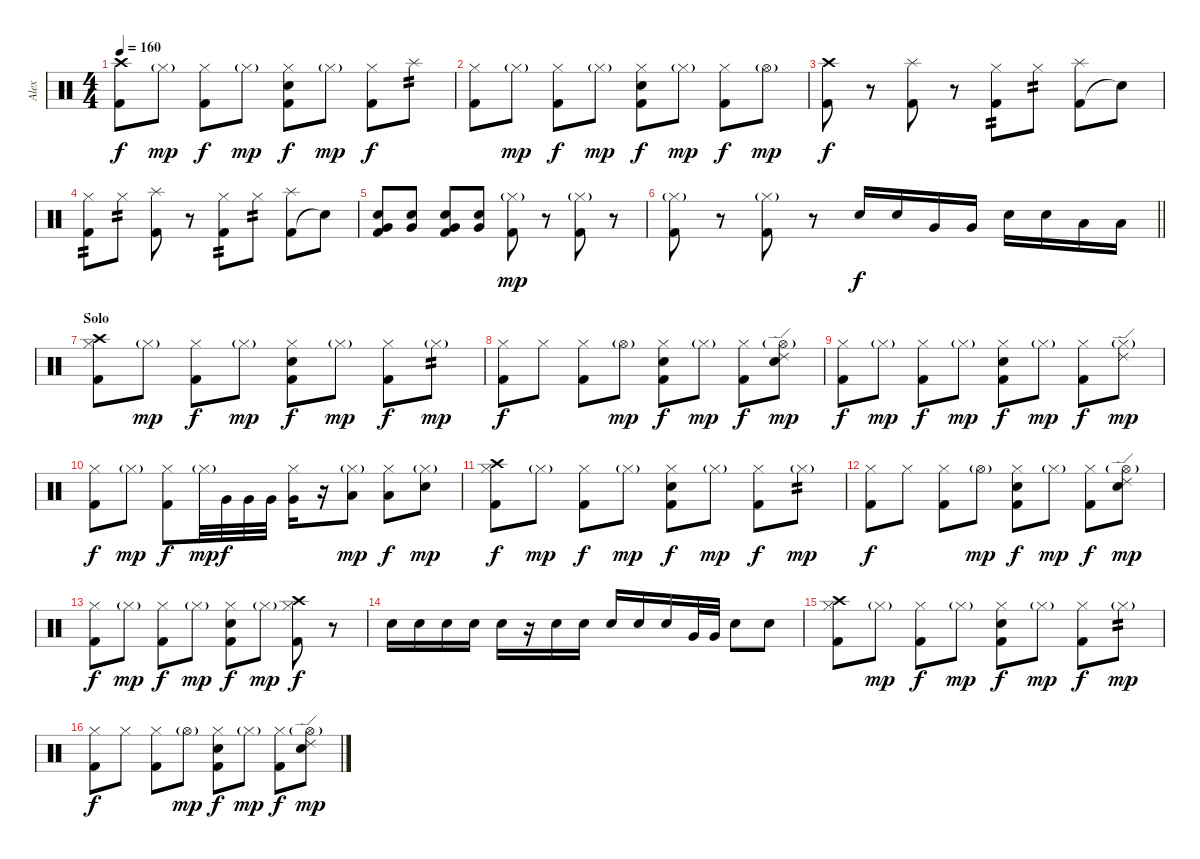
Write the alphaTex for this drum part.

\track ("Alex" "Alex") {instrument percussion}
\staff {score}
\articulation defaults
\ts (4 4)
\tempo 160
\clef neutral
\ks c
("Kick (hit) 2" "Crash high (hit)").8{dy f} "Hi-Hat (closed)"{g}.8{dy mp} ("Kick (hit) 2" "Hi-Hat (closed)").8{dy f} "Hi-Hat (closed)"{g}.8{dy mp} ("Kick (hit) 2" "Hi-Hat (closed)" "Snare (hit) 2").8{dy f} "Hi-Hat (closed)"{g}.8{dy mp} ("Kick (hit) 2" "Hi-Hat (closed)").8{dy f} "Splash (hit)".8{tp 2} |
("Kick (hit) 2" "Hi-Hat (closed)").8 "Hi-Hat (closed)"{g}.8{dy mp} ("Kick (hit) 2" "Hi-Hat (closed)").8{dy f} "Hi-Hat (closed)"{g}.8{dy mp} ("Kick (hit) 2" "Hi-Hat (closed)" "Snare (hit) 2").8{dy f} "Hi-Hat (closed)"{g}.8{dy mp} ("Kick (hit) 2" "Hi-Hat (closed)").8{dy f} "Hi-Hat (open)"{g}.8{dy mp} |
("Kick (hit) 2" "Crash high (hit)").8{dy f} r.8 ("Kick (hit) 2" "Splash (hit)").8 r.8 ("Kick (hit) 2" "Hi-Hat (closed)").8{tp 2} "Hi-Hat (closed)".8{tp 2} ("Kick (hit) 2" "Splash (hit)").8 "Snare (hit)"{t}.8 |
("Kick (hit) 2" "Hi-Hat (closed)").8{tp 2} "Hi-Hat (closed)".8{tp 2} ("Kick (hit) 2" "Splash (hit)").8 r.8 ("Kick (hit) 2" "Hi-Hat (closed)").8{tp 2} "Hi-Hat (closed)".8{tp 2} ("Kick (hit) 2" "Splash (hit)").8 "Snare (hit)"{t}.8 |
("Very Low Tom (hit)" "Kick (hit) 2" "Snare (hit) 2").8 ("Very Low Tom (hit)" "Snare (hit) 2").8 ("Very Low Tom (hit)" "Kick (hit) 2" "Snare (hit) 2").8 ("Very Low Tom (hit)" "Snare (hit) 2").8 ("Kick (hit) 2" "Hi-Hat (closed)"{g}).8{dy mp} r.8 ("Kick (hit) 2" "Hi-Hat (closed)"{g}).8 r.8 |
\barLineRight lightlight
("Kick (hit) 2" "Hi-Hat (closed)"{g}).8 r.8 ("Kick (hit) 2" "Hi-Hat (closed)"{g}).8 r.8 "Snare (hit) 2".16{dy f} "Snare (hit) 2".16 "Very Low Tom (hit)".16 "Very Low Tom (hit)".16 "Snare (hit) 2".16 "Snare (hit) 2".16 "Low Tom (hit)".16 "Low Tom (hit)".16 |
\section ("" "Solo")
("Kick (hit) 2" "Hi-Hat (closed)" "Crash high (hit)").8 "Hi-Hat (closed)"{g}.8{dy mp} ("Kick (hit) 2" "Hi-Hat (closed)").8{dy f} "Hi-Hat (closed)"{g}.8{dy mp} ("Kick (hit) 2" "Hi-Hat (closed)" "Snare (hit) 2").8{dy f} "Hi-Hat (closed)"{g}.8{dy mp} ("Kick (hit) 2" "Hi-Hat (closed)").8{dy f} "Hi-Hat (closed)"{g}.8{tp 2 dy mp} |
("Kick (hit) 2" "Hi-Hat (closed)").8{dy f} "Hi-Hat (closed)".8 ("Kick (hit) 2" "Hi-Hat (closed)").8 "Hi-Hat (open)"{g}.8{dy mp} ("Kick (hit) 2" "Hi-Hat (closed)" "Snare (hit) 2").8{dy f} "Hi-Hat (closed)"{g}.8{dy mp} ("Kick (hit) 2" "Hi-Hat (closed)").8{dy f} ("Hi-Hat (open)"{g} "Ride (edge) 2" "Snare (hit) 2").8{dy mp} |
("Kick (hit) 2" "Hi-Hat (closed)").8{dy f} "Hi-Hat (closed)"{g}.8{dy mp} ("Kick (hit) 2" "Hi-Hat (closed)").8{dy f} "Hi-Hat (closed)"{g}.8{dy mp} ("Kick (hit) 2" "Hi-Hat (closed)" "Snare (hit) 2").8{dy f} "Hi-Hat (closed)"{g}.8{dy mp} ("Kick (hit) 2" "Hi-Hat (closed)").8{dy f} ("Hi-Hat (closed)"{g} "Ride (edge) 2").8{dy mp} |
("Kick (hit) 2" "Hi-Hat (closed)").8{dy f} "Hi-Hat (closed)"{g}.8{dy mp} ("Kick (hit) 2" "Hi-Hat (closed)").8{dy f} "Hi-Hat (closed)"{g}.32{dy mp} "Very Low Tom (hit)".32{dy f} "Very Low Tom (hit)".32 "Very Low Tom (hit)".32 ("Hi-Hat (closed)" "Very Low Tom (hit)").16 r.16 ("Hi-Hat (closed)"{g} "Low Tom (hit)").8{dy mp} ("Hi-Hat (closed)" "Low Tom (hit)").8{dy f} ("Hi-Hat (closed)"{g} "Snare (hit) 2").8{dy mp} |
("Kick (hit) 2" "Hi-Hat (closed)" "Crash high (hit)").8{dy f} "Hi-Hat (closed)"{g}.8{dy mp} ("Kick (hit) 2" "Hi-Hat (closed)").8{dy f} "Hi-Hat (closed)"{g}.8{dy mp} ("Kick (hit) 2" "Hi-Hat (closed)" "Snare (hit) 2").8{dy f} "Hi-Hat (closed)"{g}.8{dy mp} ("Kick (hit) 2" "Hi-Hat (closed)").8{dy f} "Hi-Hat (closed)"{g}.8{tp 2 dy mp} |
("Kick (hit) 2" "Hi-Hat (closed)").8{dy f} "Hi-Hat (closed)".8 ("Kick (hit) 2" "Hi-Hat (closed)").8 "Hi-Hat (open)"{g}.8{dy mp} ("Kick (hit) 2" "Hi-Hat (closed)" "Snare (hit) 2").8{dy f} "Hi-Hat (closed)"{g}.8{dy mp} ("Kick (hit) 2" "Hi-Hat (closed)").8{dy f} ("Hi-Hat (open)"{g} "Ride (edge) 2" "Snare (hit) 2").8{dy mp} |
("Kick (hit) 2" "Hi-Hat (closed)").8{dy f} "Hi-Hat (closed)"{g}.8{dy mp} ("Kick (hit) 2" "Hi-Hat (closed)").8{dy f} "Hi-Hat (closed)"{g}.8{dy mp} ("Kick (hit) 2" "Hi-Hat (closed)" "Snare (hit) 2").8{dy f} "Hi-Hat (closed)"{g}.8{dy mp} ("Kick (hit) 2" "Hi-Hat (closed)" "Crash high (hit)").8{dy f} r.8 |
"Snare (hit) 2".16 "Snare (hit) 2".16 "Snare (hit) 2".16 "Snare (hit) 2".16 "Snare (hit) 2".16 r.16 "Snare (hit) 2".16 "Snare (hit) 2".16 "Snare (hit) 2".16 "Snare (hit) 2".16 "Snare (hit) 2".16 "Very Low Tom (hit)".32 "Very Low Tom (hit)".32 "Snare (hit) 2".8 "Snare (hit) 2".8 |
("Kick (hit) 2" "Hi-Hat (closed)" "Crash high (hit)").8 "Hi-Hat (closed)"{g}.8{dy mp} ("Kick (hit) 2" "Hi-Hat (closed)").8{dy f} "Hi-Hat (closed)"{g}.8{dy mp} ("Kick (hit) 2" "Hi-Hat (closed)" "Snare (hit) 2").8{dy f} "Hi-Hat (closed)"{g}.8{dy mp} ("Kick (hit) 2" "Hi-Hat (closed)").8{dy f} "Hi-Hat (closed)"{g}.8{tp 2 dy mp} |
("Kick (hit) 2" "Hi-Hat (closed)").8{dy f} "Hi-Hat (closed)".8 ("Kick (hit) 2" "Hi-Hat (closed)").8 "Hi-Hat (open)"{g}.8{dy mp} ("Kick (hit) 2" "Hi-Hat (closed)" "Snare (hit) 2").8{dy f} "Hi-Hat (closed)"{g}.8{dy mp} ("Kick (hit) 2" "Hi-Hat (closed)").8{dy f} ("Hi-Hat (open)"{g} "Ride (edge) 2" "Snare (hit) 2").8{dy mp}
